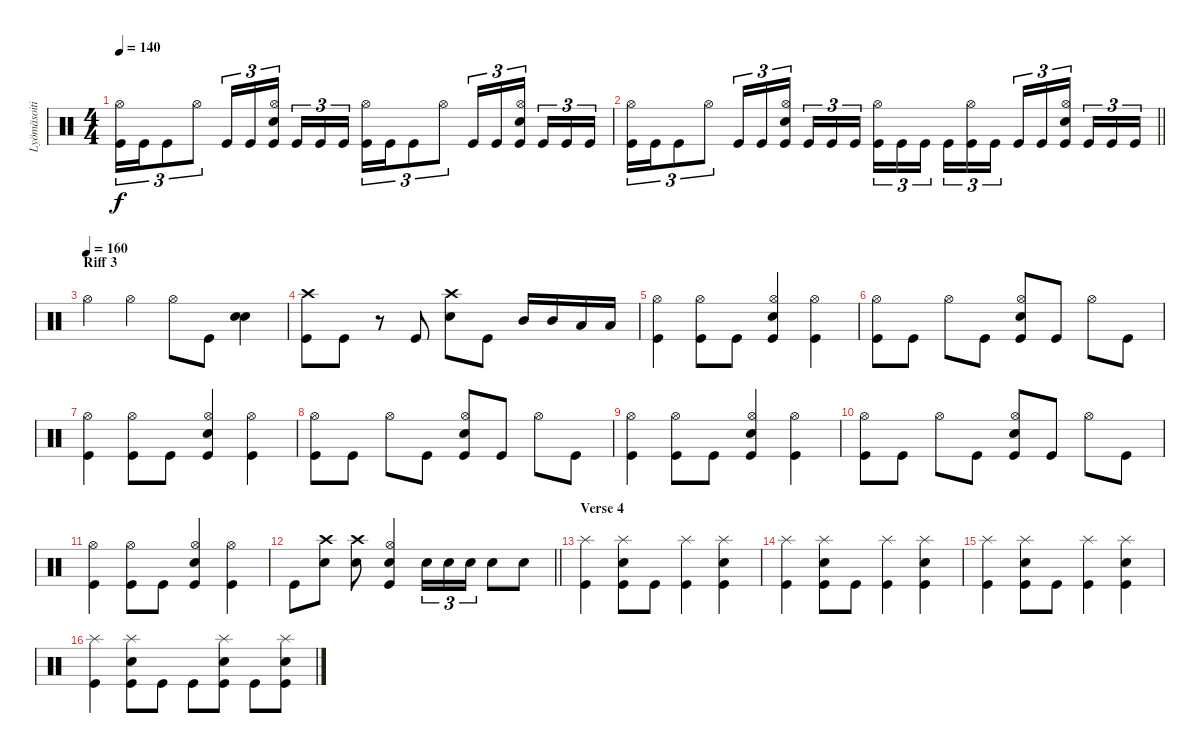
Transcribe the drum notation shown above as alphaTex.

\track ("Lyömäsoitin" "Lyömäsoiti") {instrument percussion}
\staff {score}
\articulation defaults
\ts (4 4)
\tempo 140
\clef neutral
\ks c
("Kick (hit)" "Hi-Hat (open)").16{tu (3 2) dy f} "Kick (hit)".16{tu (3 2)} "Kick (hit)".8{tu (3 2)} "Hi-Hat (open)".8{tu (3 2)} "Kick (hit)".16{tu (3 2)} "Kick (hit)".16{tu (3 2)} ("Kick (hit)" "Hi-Hat (open)" "Electric Snare (hit)").16{tu (3 2) beam splitsecondary} "Kick (hit)".16{tu (3 2)} "Kick (hit)".16{tu (3 2)} "Kick (hit)".16{tu (3 2)} ("Kick (hit)" "Hi-Hat (open)").16{tu (3 2)} "Kick (hit)".16{tu (3 2)} "Kick (hit)".8{tu (3 2)} "Hi-Hat (open)".8{tu (3 2)} "Kick (hit)".16{tu (3 2)} "Kick (hit)".16{tu (3 2)} ("Kick (hit)" "Hi-Hat (open)" "Electric Snare (hit)").16{tu (3 2) beam splitsecondary} "Kick (hit)".16{tu (3 2)} "Kick (hit)".16{tu (3 2)} "Kick (hit)".16{tu (3 2)} |
\barLineRight lightlight
("Kick (hit)" "Hi-Hat (open)").16{tu (3 2)} "Kick (hit)".16{tu (3 2)} "Kick (hit)".8{tu (3 2)} "Hi-Hat (open)".8{tu (3 2)} "Kick (hit)".16{tu (3 2)} "Kick (hit)".16{tu (3 2)} ("Kick (hit)" "Hi-Hat (open)" "Electric Snare (hit)").16{tu (3 2) beam splitsecondary} "Kick (hit)".16{tu (3 2)} "Kick (hit)".16{tu (3 2)} "Kick (hit)".16{tu (3 2)} ("Kick (hit)" "Hi-Hat (open)").16{tu (3 2)} "Kick (hit)".16{tu (3 2)} "Kick (hit)".16{tu (3 2) beam splitsecondary} "Kick (hit)".16{tu (3 2)} ("Kick (hit)" "Hi-Hat (open)").16{tu (3 2)} "Kick (hit)".16{tu (3 2)} "Kick (hit)".16{tu (3 2)} "Kick (hit)".16{tu (3 2)} ("Kick (hit)" "Hi-Hat (open)" "Electric Snare (hit)").16{tu (3 2) beam splitsecondary} "Kick (hit)".16{tu (3 2)} "Kick (hit)".16{tu (3 2)} "Kick (hit)".16{tu (3 2)} |
\section ("" "Riff 3")
\tempo (160)
"Hi-Hat (open)".4 "Hi-Hat (open)".4 "Hi-Hat (open)".8 "Kick (hit)".8 ("Electric Snare (hit)" "Electric Snare (hit)").4 |
("Crash high (hit)" "Kick (hit)").8 "Kick (hit)".8 r.8 "Kick (hit)".8 ("Electric Snare (hit)" "Crash high (hit)").8 "Kick (hit)".8 "Mid Tom (hit)".16 "Mid Tom (hit)".16 "Low Tom (hit)".16 "Low Tom (hit)".16 |
("Kick (hit)" "Hi-Hat (open)").4 ("Hi-Hat (open)" "Kick (hit)").8 "Kick (hit)".8 ("Electric Snare (hit)" "Hi-Hat (open)" "Kick (hit)").4 ("Kick (hit)" "Hi-Hat (open)").4 |
("Kick (hit)" "Hi-Hat (open)").8 "Kick (hit)".8 "Hi-Hat (open)".8 "Kick (hit)".8 ("Kick (hit)" "Hi-Hat (open)" "Electric Snare (hit)").8 "Kick (hit)".8 "Hi-Hat (open)".8 "Kick (hit)".8 |
("Kick (hit)" "Hi-Hat (open)").4 ("Hi-Hat (open)" "Kick (hit)").8 "Kick (hit)".8 ("Electric Snare (hit)" "Hi-Hat (open)" "Kick (hit)").4 ("Kick (hit)" "Hi-Hat (open)").4 |
("Kick (hit)" "Hi-Hat (open)").8 "Kick (hit)".8 "Hi-Hat (open)".8 "Kick (hit)".8 ("Kick (hit)" "Hi-Hat (open)" "Electric Snare (hit)").8 "Kick (hit)".8 "Hi-Hat (open)".8 "Kick (hit)".8 |
("Kick (hit)" "Hi-Hat (open)").4 ("Hi-Hat (open)" "Kick (hit)").8 "Kick (hit)".8 ("Electric Snare (hit)" "Hi-Hat (open)" "Kick (hit)").4 ("Kick (hit)" "Hi-Hat (open)").4 |
("Kick (hit)" "Hi-Hat (open)").8 "Kick (hit)".8 "Hi-Hat (open)".8 "Kick (hit)".8 ("Kick (hit)" "Hi-Hat (open)" "Electric Snare (hit)").8 "Kick (hit)".8 "Hi-Hat (open)".8 "Kick (hit)".8 |
("Kick (hit)" "Hi-Hat (open)").4 ("Hi-Hat (open)" "Kick (hit)").8 "Kick (hit)".8 ("Electric Snare (hit)" "Hi-Hat (open)" "Kick (hit)").4 ("Kick (hit)" "Hi-Hat (open)").4 |
\barLineRight lightlight "Kick (hit)".8
("Electric Snare (hit)" "Crash high (hit)").8 ("Electric Snare (hit)" "Crash high (hit)").8 ("Electric Snare (hit)" "Kick (hit)" "Hi-Hat (open)").4 "Electric Snare (hit)".16{tu (3 2)} "Electric Snare (hit)".16{tu (3 2)} "Electric Snare (hit)".16{tu (3 2)} "Electric Snare (hit)".8 "Electric Snare (hit)".8 |
\section ("" "Verse 4")
("Kick (hit)" "Splash (hit)").4 ("Kick (hit)" "Splash (hit)" "Electric Snare (hit)").8 "Kick (hit)".8 ("Kick (hit)" "Splash (hit)").4 ("Kick (hit)" "Splash (hit)" "Electric Snare (hit)").4 |
("Kick (hit)" "Splash (hit)").4 ("Kick (hit)" "Splash (hit)" "Electric Snare (hit)").8 "Kick (hit)".8 ("Kick (hit)" "Splash (hit)").4 ("Kick (hit)" "Splash (hit)" "Electric Snare (hit)").4 |
("Kick (hit)" "Splash (hit)").4 ("Kick (hit)" "Splash (hit)" "Electric Snare (hit)").8 "Kick (hit)".8 ("Kick (hit)" "Splash (hit)").4 ("Kick (hit)" "Splash (hit)" "Electric Snare (hit)").4 |
("Kick (hit)" "Splash (hit)").4 ("Kick (hit)" "Splash (hit)" "Electric Snare (hit)").8 "Kick (hit)".8 "Kick (hit)".8 ("Kick (hit)" "Electric Snare (hit)" "Splash (hit)").8 "Kick (hit)".8 ("Kick (hit)" "Electric Snare (hit)" "Splash (hit)").8
